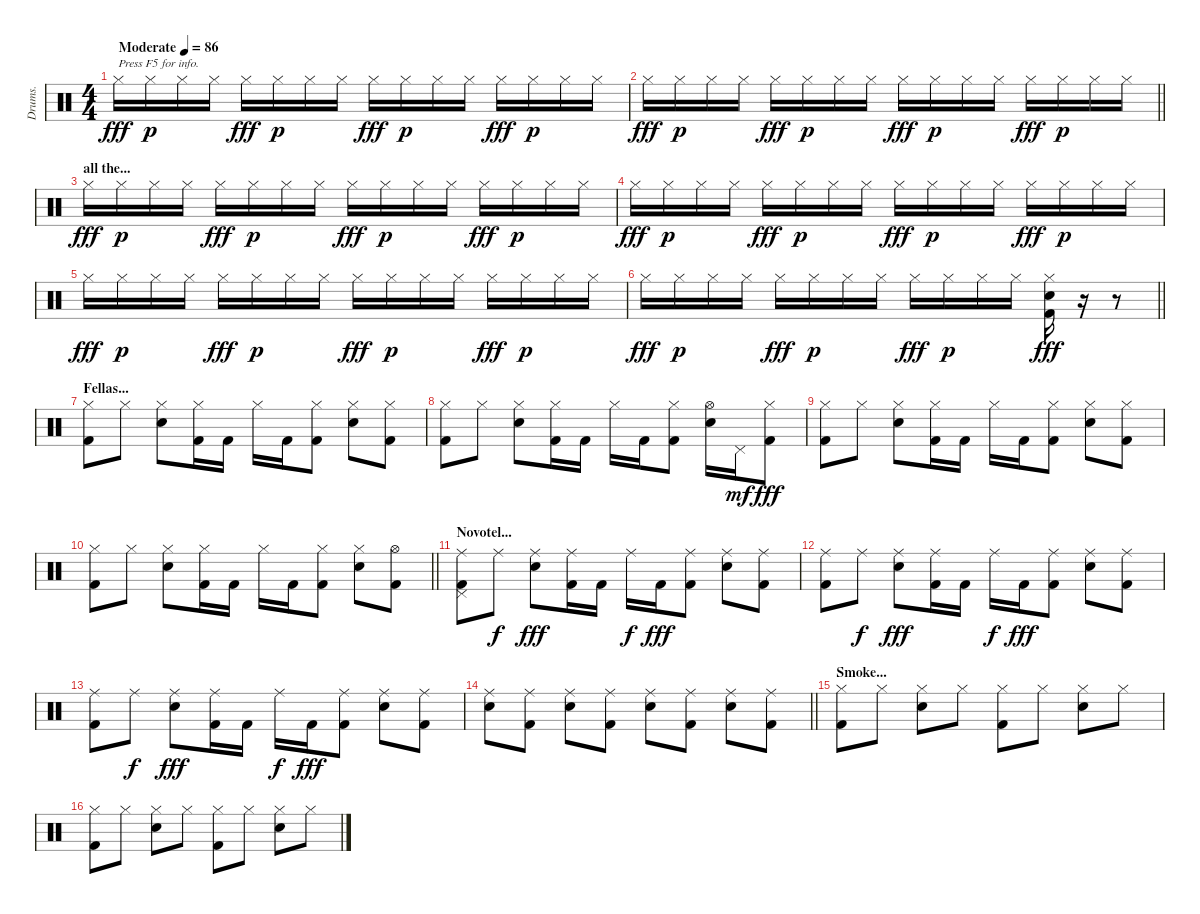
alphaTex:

\track ("Drums." "Drums.") {instrument percussion}
\staff {score}
\articulation defaults
\ts (4 4)
\section ("" "")
\tempo (86 "Moderate")
\clef neutral
\ks c "Hi-Hat (closed)".16{txt "Press F5 for info." dy fff} "Hi-Hat (closed)".16{dy p} "Hi-Hat (closed)".16 "Hi-Hat (closed)".16 "Hi-Hat (closed)".16{dy fff} "Hi-Hat (closed)".16{dy p} "Hi-Hat (closed)".16 "Hi-Hat (closed)".16 "Hi-Hat (closed)".16{dy fff} "Hi-Hat (closed)".16{dy p} "Hi-Hat (closed)".16 "Hi-Hat (closed)".16 "Hi-Hat (closed)".16{dy fff} "Hi-Hat (closed)".16{dy p} "Hi-Hat (closed)".16 "Hi-Hat (closed)".16
|
\barLineRight lightlight "Hi-Hat (closed)".16{dy fff} "Hi-Hat (closed)".16{dy p} "Hi-Hat (closed)".16 "Hi-Hat (closed)".16 "Hi-Hat (closed)".16{dy fff} "Hi-Hat (closed)".16{dy p} "Hi-Hat (closed)".16 "Hi-Hat (closed)".16 "Hi-Hat (closed)".16{dy fff} "Hi-Hat (closed)".16{dy p} "Hi-Hat (closed)".16 "Hi-Hat (closed)".16 "Hi-Hat (closed)".16{dy fff} "Hi-Hat (closed)".16{dy p} "Hi-Hat (closed)".16 "Hi-Hat (closed)".16
|
\section ("" "all the...")
"Hi-Hat (closed)".16{dy fff} "Hi-Hat (closed)".16{dy p} "Hi-Hat (closed)".16 "Hi-Hat (closed)".16 "Hi-Hat (closed)".16{dy fff} "Hi-Hat (closed)".16{dy p} "Hi-Hat (closed)".16 "Hi-Hat (closed)".16 "Hi-Hat (closed)".16{dy fff} "Hi-Hat (closed)".16{dy p} "Hi-Hat (closed)".16 "Hi-Hat (closed)".16 "Hi-Hat (closed)".16{dy fff} "Hi-Hat (closed)".16{dy p} "Hi-Hat (closed)".16 "Hi-Hat (closed)".16 |
"Hi-Hat (closed)".16{dy fff} "Hi-Hat (closed)".16{dy p} "Hi-Hat (closed)".16 "Hi-Hat (closed)".16 "Hi-Hat (closed)".16{dy fff} "Hi-Hat (closed)".16{dy p} "Hi-Hat (closed)".16 "Hi-Hat (closed)".16 "Hi-Hat (closed)".16{dy fff} "Hi-Hat (closed)".16{dy p} "Hi-Hat (closed)".16 "Hi-Hat (closed)".16 "Hi-Hat (closed)".16{dy fff} "Hi-Hat (closed)".16{dy p} "Hi-Hat (closed)".16 "Hi-Hat (closed)".16 |
"Hi-Hat (closed)".16{dy fff} "Hi-Hat (closed)".16{dy p} "Hi-Hat (closed)".16 "Hi-Hat (closed)".16 "Hi-Hat (closed)".16{dy fff} "Hi-Hat (closed)".16{dy p} "Hi-Hat (closed)".16 "Hi-Hat (closed)".16 "Hi-Hat (closed)".16{dy fff} "Hi-Hat (closed)".16{dy p} "Hi-Hat (closed)".16 "Hi-Hat (closed)".16 "Hi-Hat (closed)".16{dy fff} "Hi-Hat (closed)".16{dy p} "Hi-Hat (closed)".16 "Hi-Hat (closed)".16 |
\barLineRight lightlight "Hi-Hat (closed)".16{dy fff} "Hi-Hat (closed)".16{dy p} "Hi-Hat (closed)".16 "Hi-Hat (closed)".16 "Hi-Hat (closed)".16{dy fff} "Hi-Hat (closed)".16{dy p} "Hi-Hat (closed)".16 "Hi-Hat (closed)".16 "Hi-Hat (closed)".16{dy fff} "Hi-Hat (closed)".16{dy p} "Hi-Hat (closed)".16 "Hi-Hat (closed)".16
("Hi-Hat (closed)" "Electric Snare (hit)" "Kick (hit) 2").16{dy fff} r.16 r.8 |
\section ("" "Fellas...")
("Hi-Hat (closed)" "Kick (hit) 2").8 "Hi-Hat (closed)".8 ("Hi-Hat (closed)" "Electric Snare (hit)").8 ("Hi-Hat (closed)" "Kick (hit) 2").16 "Kick (hit) 2".16 "Hi-Hat (closed)".16 "Kick (hit) 2".16 ("Hi-Hat (closed)" "Kick (hit) 2").8 ("Hi-Hat (closed)" "Electric Snare (hit)").8 ("Hi-Hat (closed)" "Kick (hit) 2").8 |
("Hi-Hat (closed)" "Kick (hit) 2").8 "Hi-Hat (closed)".8 ("Hi-Hat (closed)" "Electric Snare (hit)").8 ("Hi-Hat (closed)" "Kick (hit) 2").16 "Kick (hit) 2".16 "Hi-Hat (closed)".16 "Kick (hit) 2".16 ("Hi-Hat (closed)" "Kick (hit) 2").8 ("Hi-Hat (open)" "Electric Snare (hit)").16 "Pedal Hi-Hat (hit)".16{dy mf} ("Hi-Hat (closed)" "Kick (hit) 2").8{dy fff} |
("Hi-Hat (closed)" "Kick (hit) 2").8 "Hi-Hat (closed)".8 ("Hi-Hat (closed)" "Electric Snare (hit)").8 ("Hi-Hat (closed)" "Kick (hit) 2").16 "Kick (hit) 2".16 "Hi-Hat (closed)".16 "Kick (hit) 2".16 ("Hi-Hat (closed)" "Kick (hit) 2").8 ("Hi-Hat (closed)" "Electric Snare (hit)").8 ("Hi-Hat (closed)" "Kick (hit) 2").8 |
\barLineRight lightlight
("Hi-Hat (closed)" "Kick (hit) 2").8 "Hi-Hat (closed)".8 ("Hi-Hat (closed)" "Electric Snare (hit)").8 ("Hi-Hat (closed)" "Kick (hit) 2").16 "Kick (hit) 2".16 "Hi-Hat (closed)".16 "Kick (hit) 2".16 ("Hi-Hat (closed)" "Kick (hit) 2").8 ("Hi-Hat (closed)" "Electric Snare (hit)").8 ("Hi-Hat (open)" "Kick (hit) 2").8 |
\section ("" "Novotel...")
("Ride (middle)" "Pedal Hi-Hat (hit)" "Kick (hit) 2").8 "Ride (middle)".8{dy f} ("Ride (middle)" "Electric Snare (hit)").8{dy fff} ("Ride (middle)" "Kick (hit) 2").16 "Kick (hit) 2".16 "Ride (middle)".16{dy f} "Kick (hit) 2".16{dy fff} ("Ride (middle)" "Kick (hit) 2").8 ("Ride (middle)" "Electric Snare (hit)").8 ("Ride (middle)" "Kick (hit) 2").8 |
("Ride (middle)" "Kick (hit) 2").8 "Ride (middle)".8{dy f} ("Ride (middle)" "Electric Snare (hit)").8{dy fff} ("Ride (middle)" "Kick (hit) 2").16 "Kick (hit) 2".16 "Ride (middle)".16{dy f} "Kick (hit) 2".16{dy fff} ("Ride (middle)" "Kick (hit) 2").8 ("Ride (middle)" "Electric Snare (hit)").8 ("Ride (middle)" "Kick (hit) 2").8 |
("Ride (middle)" "Kick (hit) 2").8 "Ride (middle)".8{dy f} ("Ride (middle)" "Electric Snare (hit)").8{dy fff} ("Ride (middle)" "Kick (hit) 2").16 "Kick (hit) 2".16 "Ride (middle)".16{dy f} "Kick (hit) 2".16{dy fff} ("Ride (middle)" "Kick (hit) 2").8 ("Ride (middle)" "Electric Snare (hit)").8 ("Ride (middle)" "Kick (hit) 2").8 |
\barLineRight lightlight
("Ride (middle)" "Electric Snare (hit)").8 ("Ride (middle)" "Kick (hit) 2").8 ("Ride (middle)" "Electric Snare (hit)").8 ("Ride (middle)" "Kick (hit) 2").8 ("Ride (middle)" "Electric Snare (hit)").8 ("Ride (middle)" "Kick (hit) 2").8 ("Ride (middle)" "Electric Snare (hit)").8 ("Ride (middle)" "Kick (hit) 2").8 |
\section ("" "Smoke...")
("Hi-Hat (closed)" "Kick (hit) 2").8 "Hi-Hat (closed)".8 ("Hi-Hat (closed)" "Electric Snare (hit)").8 "Hi-Hat (closed)".8 ("Hi-Hat (closed)" "Kick (hit) 2").8 "Hi-Hat (closed)".8 ("Hi-Hat (closed)" "Electric Snare (hit)").8 "Hi-Hat (closed)".8 |
("Hi-Hat (closed)" "Kick (hit) 2").8 "Hi-Hat (closed)".8 ("Hi-Hat (closed)" "Electric Snare (hit)").8 "Hi-Hat (closed)".8 ("Hi-Hat (closed)" "Kick (hit) 2").8 "Hi-Hat (closed)".8 ("Hi-Hat (closed)" "Electric Snare (hit)").8 "Hi-Hat (closed)".8
